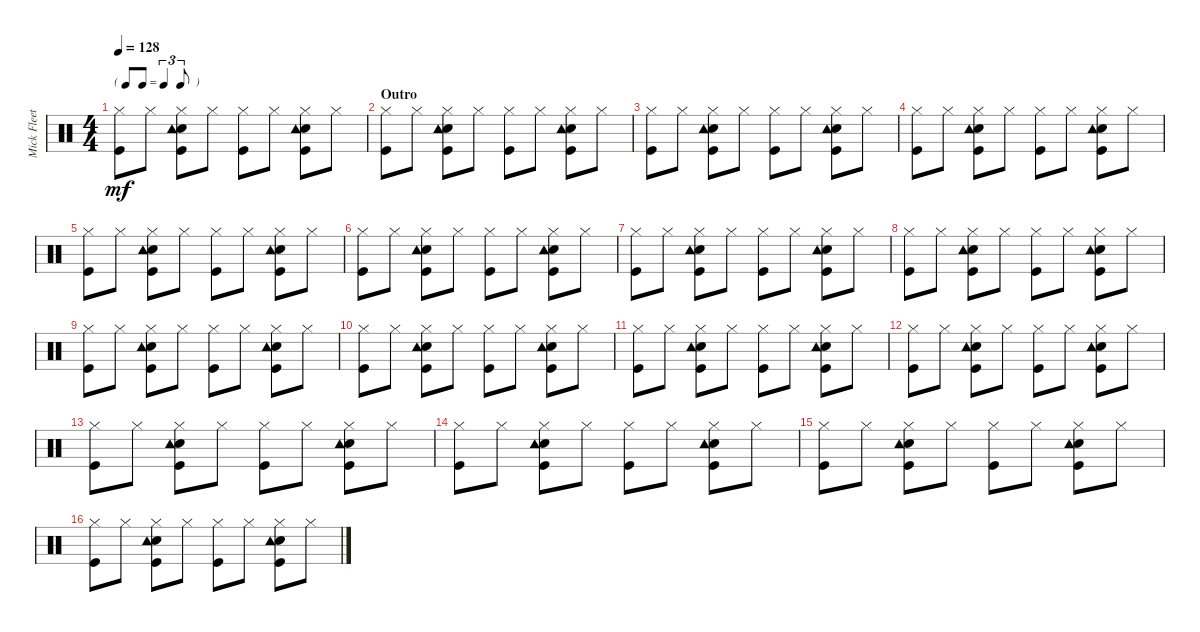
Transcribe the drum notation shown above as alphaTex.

\track ("Mick Fleetwood - Drums" "Mick Fleet") {instrument percussion}
\staff {score}
\articulation defaults
\ts (4 4)
\tf triplet8th
\tempo 128
\clef neutral
\ks c
("Kick (hit)" "Hi-Hat (closed)").8{dy mf} "Hi-Hat (closed)".8 ("Kick (hit)" "Snare (hit) 2" "Hi-Hat (closed)" "Tambourine (hit)").8 "Hi-Hat (closed)".8 ("Kick (hit)" "Hi-Hat (closed)").8 "Hi-Hat (closed)".8 ("Kick (hit)" "Snare (hit) 2" "Hi-Hat (closed)" "Tambourine (hit)").8 "Hi-Hat (closed)".8 |
\section ("" "Outro")
("Kick (hit)" "Hi-Hat (closed)").8 "Hi-Hat (closed)".8 ("Kick (hit)" "Snare (hit) 2" "Hi-Hat (closed)" "Tambourine (hit)").8 "Hi-Hat (closed)".8 ("Kick (hit)" "Hi-Hat (closed)").8 "Hi-Hat (closed)".8 ("Kick (hit)" "Snare (hit) 2" "Hi-Hat (closed)" "Tambourine (hit)").8 "Hi-Hat (closed)".8 |
("Kick (hit)" "Hi-Hat (closed)").8 "Hi-Hat (closed)".8 ("Kick (hit)" "Snare (hit) 2" "Hi-Hat (closed)" "Tambourine (hit)").8 "Hi-Hat (closed)".8 ("Kick (hit)" "Hi-Hat (closed)").8 "Hi-Hat (closed)".8 ("Kick (hit)" "Snare (hit) 2" "Hi-Hat (closed)" "Tambourine (hit)").8 "Hi-Hat (closed)".8 |
("Kick (hit)" "Hi-Hat (closed)").8 "Hi-Hat (closed)".8 ("Kick (hit)" "Snare (hit) 2" "Hi-Hat (closed)" "Tambourine (hit)").8 "Hi-Hat (closed)".8 ("Kick (hit)" "Hi-Hat (closed)").8 "Hi-Hat (closed)".8 ("Kick (hit)" "Snare (hit) 2" "Hi-Hat (closed)" "Tambourine (hit)").8 "Hi-Hat (closed)".8 |
("Kick (hit)" "Hi-Hat (closed)").8 "Hi-Hat (closed)".8 ("Kick (hit)" "Snare (hit) 2" "Hi-Hat (closed)" "Tambourine (hit)").8 "Hi-Hat (closed)".8 ("Kick (hit)" "Hi-Hat (closed)").8 "Hi-Hat (closed)".8 ("Kick (hit)" "Snare (hit) 2" "Hi-Hat (closed)" "Tambourine (hit)").8 "Hi-Hat (closed)".8 |
("Kick (hit)" "Hi-Hat (closed)").8 "Hi-Hat (closed)".8 ("Kick (hit)" "Snare (hit) 2" "Hi-Hat (closed)" "Tambourine (hit)").8 "Hi-Hat (closed)".8 ("Kick (hit)" "Hi-Hat (closed)").8 "Hi-Hat (closed)".8 ("Kick (hit)" "Snare (hit) 2" "Hi-Hat (closed)" "Tambourine (hit)").8 "Hi-Hat (closed)".8 |
("Kick (hit)" "Hi-Hat (closed)").8 "Hi-Hat (closed)".8 ("Kick (hit)" "Snare (hit) 2" "Hi-Hat (closed)" "Tambourine (hit)").8 "Hi-Hat (closed)".8 ("Kick (hit)" "Hi-Hat (closed)").8 "Hi-Hat (closed)".8 ("Kick (hit)" "Snare (hit) 2" "Hi-Hat (closed)" "Tambourine (hit)").8 "Hi-Hat (closed)".8 |
("Kick (hit)" "Hi-Hat (closed)").8 "Hi-Hat (closed)".8 ("Kick (hit)" "Snare (hit) 2" "Hi-Hat (closed)" "Tambourine (hit)").8 "Hi-Hat (closed)".8 ("Kick (hit)" "Hi-Hat (closed)").8 "Hi-Hat (closed)".8 ("Kick (hit)" "Snare (hit) 2" "Hi-Hat (closed)" "Tambourine (hit)").8 "Hi-Hat (closed)".8 |
("Kick (hit)" "Hi-Hat (closed)").8 "Hi-Hat (closed)".8 ("Kick (hit)" "Snare (hit) 2" "Hi-Hat (closed)" "Tambourine (hit)").8 "Hi-Hat (closed)".8 ("Kick (hit)" "Hi-Hat (closed)").8 "Hi-Hat (closed)".8 ("Kick (hit)" "Snare (hit) 2" "Hi-Hat (closed)" "Tambourine (hit)").8 "Hi-Hat (closed)".8 |
("Kick (hit)" "Hi-Hat (closed)").8 "Hi-Hat (closed)".8 ("Kick (hit)" "Snare (hit) 2" "Hi-Hat (closed)" "Tambourine (hit)").8 "Hi-Hat (closed)".8 ("Kick (hit)" "Hi-Hat (closed)").8 "Hi-Hat (closed)".8 ("Kick (hit)" "Snare (hit) 2" "Hi-Hat (closed)" "Tambourine (hit)").8 "Hi-Hat (closed)".8 |
("Kick (hit)" "Hi-Hat (closed)").8 "Hi-Hat (closed)".8 ("Kick (hit)" "Snare (hit) 2" "Hi-Hat (closed)" "Tambourine (hit)").8 "Hi-Hat (closed)".8 ("Kick (hit)" "Hi-Hat (closed)").8 "Hi-Hat (closed)".8 ("Kick (hit)" "Snare (hit) 2" "Hi-Hat (closed)" "Tambourine (hit)").8 "Hi-Hat (closed)".8 |
("Kick (hit)" "Hi-Hat (closed)").8 "Hi-Hat (closed)".8 ("Kick (hit)" "Snare (hit) 2" "Hi-Hat (closed)" "Tambourine (hit)").8 "Hi-Hat (closed)".8 ("Kick (hit)" "Hi-Hat (closed)").8 "Hi-Hat (closed)".8 ("Kick (hit)" "Snare (hit) 2" "Hi-Hat (closed)" "Tambourine (hit)").8 "Hi-Hat (closed)".8 |
("Kick (hit)" "Hi-Hat (closed)").8 "Hi-Hat (closed)".8 ("Kick (hit)" "Snare (hit) 2" "Hi-Hat (closed)" "Tambourine (hit)").8 "Hi-Hat (closed)".8 ("Kick (hit)" "Hi-Hat (closed)").8 "Hi-Hat (closed)".8 ("Kick (hit)" "Snare (hit) 2" "Hi-Hat (closed)" "Tambourine (hit)").8 "Hi-Hat (closed)".8 |
("Kick (hit)" "Hi-Hat (closed)").8 "Hi-Hat (closed)".8 ("Kick (hit)" "Snare (hit) 2" "Hi-Hat (closed)" "Tambourine (hit)").8 "Hi-Hat (closed)".8 ("Kick (hit)" "Hi-Hat (closed)").8 "Hi-Hat (closed)".8 ("Kick (hit)" "Snare (hit) 2" "Hi-Hat (closed)" "Tambourine (hit)").8 "Hi-Hat (closed)".8 |
("Kick (hit)" "Hi-Hat (closed)").8 "Hi-Hat (closed)".8 ("Kick (hit)" "Snare (hit) 2" "Hi-Hat (closed)" "Tambourine (hit)").8 "Hi-Hat (closed)".8 ("Kick (hit)" "Hi-Hat (closed)").8 "Hi-Hat (closed)".8 ("Kick (hit)" "Snare (hit) 2" "Hi-Hat (closed)" "Tambourine (hit)").8 "Hi-Hat (closed)".8 |
("Kick (hit)" "Hi-Hat (closed)").8 "Hi-Hat (closed)".8 ("Kick (hit)" "Snare (hit) 2" "Hi-Hat (closed)" "Tambourine (hit)").8 "Hi-Hat (closed)".8 ("Kick (hit)" "Hi-Hat (closed)").8 "Hi-Hat (closed)".8 ("Kick (hit)" "Snare (hit) 2" "Hi-Hat (closed)" "Tambourine (hit)").8 "Hi-Hat (closed)".8
